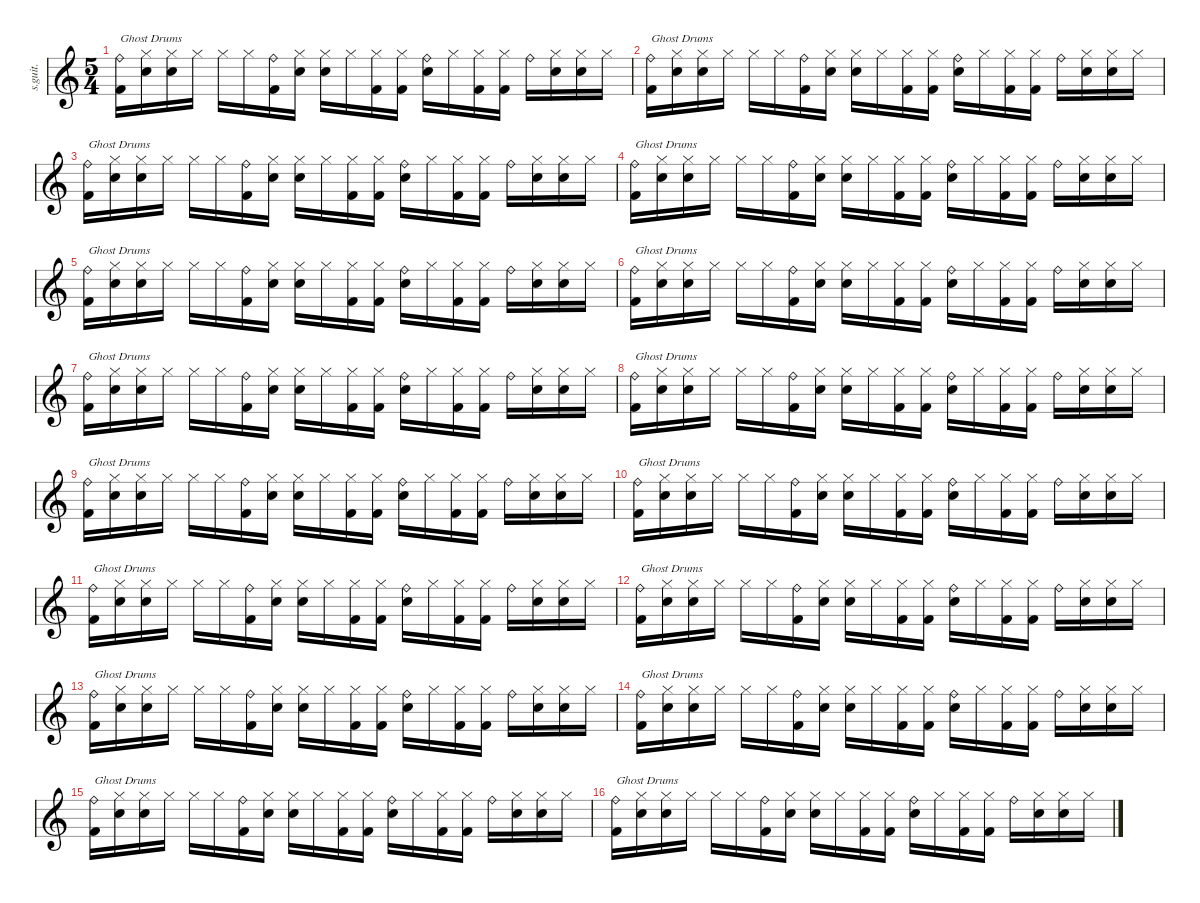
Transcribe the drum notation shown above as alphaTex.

\defaultSystemsLayout 4
\hideDynamics
\bracketExtendMode nobrackets
\track ("Pete Riley" "s.guit.") {instrument percussion}
\staff {score}
\articulation defaults
\ts (5 4)
\tempo (152 hide)
\clef g2
\ks c
("Ride (bell)" "Kick (hit) 2").16{txt "Ghost Drums" dy ff} ("Hi-Hat (closed)" "Snare (hit) 2").16{dy p} ("Hi-Hat (closed)" "Snare (hit) 2").16 "Hi-Hat (closed)".16 "Hi-Hat (closed)".16 "Hi-Hat (closed)".16 ("Ride (bell)" "Kick (hit) 2").16{dy fff} ("Hi-Hat (closed)" "Snare (hit) 2").16{dy p} ("Hi-Hat (closed)" "Snare (hit) 2").16 "Hi-Hat (closed)".16 ("Hi-Hat (closed)" "Kick (hit) 2").16 ("Hi-Hat (closed)" "Kick (hit) 2").16 ("Ride (bell)" "Snare (hit) 2").16{dy ff} "Hi-Hat (closed)".16{dy p} ("Hi-Hat (closed)" "Kick (hit) 2").16 ("Hi-Hat (closed)" "Kick (hit) 2").16 "Ride (bell)".16{dy f} ("Hi-Hat (closed)" "Snare (hit) 2").16{dy pp} ("Hi-Hat (closed)" "Snare (hit) 2").16 "Hi-Hat (closed)".16 |
("Ride (bell)" "Kick (hit) 2").16{txt "Ghost Drums" dy ff} ("Hi-Hat (closed)" "Snare (hit) 2").16{dy p} ("Hi-Hat (closed)" "Snare (hit) 2").16 "Hi-Hat (closed)".16 "Hi-Hat (closed)".16 "Hi-Hat (closed)".16 ("Ride (bell)" "Kick (hit) 2").16{dy fff} ("Hi-Hat (closed)" "Snare (hit) 2").16{dy p} ("Hi-Hat (closed)" "Snare (hit) 2").16 "Hi-Hat (closed)".16 ("Hi-Hat (closed)" "Kick (hit) 2").16 ("Hi-Hat (closed)" "Kick (hit) 2").16 ("Ride (bell)" "Snare (hit) 2").16{dy ff} "Hi-Hat (closed)".16{dy p} ("Hi-Hat (closed)" "Kick (hit) 2").16 ("Hi-Hat (closed)" "Kick (hit) 2").16 "Ride (bell)".16{dy fff} ("Hi-Hat (closed)" "Snare (hit) 2").16{dy pp} ("Hi-Hat (closed)" "Snare (hit) 2").16 "Hi-Hat (closed)".16 |
("Ride (bell)" "Kick (hit) 2").16{txt "Ghost Drums" dy ff} ("Hi-Hat (closed)" "Snare (hit) 2").16{dy p} ("Hi-Hat (closed)" "Snare (hit) 2").16 "Hi-Hat (closed)".16 "Hi-Hat (closed)".16 "Hi-Hat (closed)".16 ("Ride (bell)" "Kick (hit) 2").16{dy fff} ("Hi-Hat (closed)" "Snare (hit) 2").16{dy p} ("Hi-Hat (closed)" "Snare (hit) 2").16 "Hi-Hat (closed)".16 ("Hi-Hat (closed)" "Kick (hit) 2").16 ("Hi-Hat (closed)" "Kick (hit) 2").16 ("Ride (bell)" "Snare (hit) 2").16{dy ff} "Hi-Hat (closed)".16{dy p} ("Hi-Hat (closed)" "Kick (hit) 2").16 ("Hi-Hat (closed)" "Kick (hit) 2").16 "Ride (bell)".16{dy f} ("Hi-Hat (closed)" "Snare (hit) 2").16{dy pp} ("Hi-Hat (closed)" "Snare (hit) 2").16 "Hi-Hat (closed)".16 |
("Ride (bell)" "Kick (hit) 2").16{txt "Ghost Drums" dy ff} ("Hi-Hat (closed)" "Snare (hit) 2").16{dy p} ("Hi-Hat (closed)" "Snare (hit) 2").16 "Hi-Hat (closed)".16 "Hi-Hat (closed)".16 "Hi-Hat (closed)".16 ("Ride (bell)" "Kick (hit) 2").16{dy fff} ("Hi-Hat (closed)" "Snare (hit) 2").16{dy p} ("Hi-Hat (closed)" "Snare (hit) 2").16 "Hi-Hat (closed)".16 ("Hi-Hat (closed)" "Kick (hit) 2").16 ("Hi-Hat (closed)" "Kick (hit) 2").16 ("Ride (bell)" "Snare (hit) 2").16{dy ff} "Hi-Hat (closed)".16{dy p} ("Hi-Hat (closed)" "Kick (hit) 2").16 ("Hi-Hat (closed)" "Kick (hit) 2").16 "Ride (bell)".16{dy fff} ("Hi-Hat (closed)" "Snare (hit) 2").16{dy pp} ("Hi-Hat (closed)" "Snare (hit) 2").16 "Hi-Hat (closed)".16 |
("Ride (bell)" "Kick (hit) 2").16{txt "Ghost Drums" dy ff} ("Hi-Hat (closed)" "Snare (hit) 2").16{dy p} ("Hi-Hat (closed)" "Snare (hit) 2").16 "Hi-Hat (closed)".16 "Hi-Hat (closed)".16 "Hi-Hat (closed)".16 ("Ride (bell)" "Kick (hit) 2").16{dy fff} ("Hi-Hat (closed)" "Snare (hit) 2").16{dy p} ("Hi-Hat (closed)" "Snare (hit) 2").16 "Hi-Hat (closed)".16 ("Hi-Hat (closed)" "Kick (hit) 2").16 ("Hi-Hat (closed)" "Kick (hit) 2").16 ("Ride (bell)" "Snare (hit) 2").16{dy ff} "Hi-Hat (closed)".16{dy p} ("Hi-Hat (closed)" "Kick (hit) 2").16 ("Hi-Hat (closed)" "Kick (hit) 2").16 "Ride (bell)".16{dy f} ("Hi-Hat (closed)" "Snare (hit) 2").16{dy pp} ("Hi-Hat (closed)" "Snare (hit) 2").16 "Hi-Hat (closed)".16 |
("Ride (bell)" "Kick (hit) 2").16{txt "Ghost Drums" dy ff} ("Hi-Hat (closed)" "Snare (hit) 2").16{dy p} ("Hi-Hat (closed)" "Snare (hit) 2").16 "Hi-Hat (closed)".16 "Hi-Hat (closed)".16 "Hi-Hat (closed)".16 ("Ride (bell)" "Kick (hit) 2").16{dy fff} ("Hi-Hat (closed)" "Snare (hit) 2").16{dy p} ("Hi-Hat (closed)" "Snare (hit) 2").16 "Hi-Hat (closed)".16 ("Hi-Hat (closed)" "Kick (hit) 2").16 ("Hi-Hat (closed)" "Kick (hit) 2").16 ("Ride (bell)" "Snare (hit) 2").16{dy ff} "Hi-Hat (closed)".16{dy p} ("Hi-Hat (closed)" "Kick (hit) 2").16 ("Hi-Hat (closed)" "Kick (hit) 2").16 "Ride (bell)".16{dy fff} ("Hi-Hat (closed)" "Snare (hit) 2").16{dy pp} ("Hi-Hat (closed)" "Snare (hit) 2").16 "Hi-Hat (closed)".16 |
("Ride (bell)" "Kick (hit) 2").16{txt "Ghost Drums" dy ff} ("Hi-Hat (closed)" "Snare (hit) 2").16{dy p} ("Hi-Hat (closed)" "Snare (hit) 2").16 "Hi-Hat (closed)".16 "Hi-Hat (closed)".16 "Hi-Hat (closed)".16 ("Ride (bell)" "Kick (hit) 2").16{dy fff} ("Hi-Hat (closed)" "Snare (hit) 2").16{dy p} ("Hi-Hat (closed)" "Snare (hit) 2").16 "Hi-Hat (closed)".16 ("Hi-Hat (closed)" "Kick (hit) 2").16 ("Hi-Hat (closed)" "Kick (hit) 2").16 ("Ride (bell)" "Snare (hit) 2").16{dy ff} "Hi-Hat (closed)".16{dy p} ("Hi-Hat (closed)" "Kick (hit) 2").16 ("Hi-Hat (closed)" "Kick (hit) 2").16 "Ride (bell)".16{dy f} ("Hi-Hat (closed)" "Snare (hit) 2").16{dy pp} ("Hi-Hat (closed)" "Snare (hit) 2").16 "Hi-Hat (closed)".16 |
("Ride (bell)" "Kick (hit) 2").16{txt "Ghost Drums" dy ff} ("Hi-Hat (closed)" "Snare (hit) 2").16{dy p} ("Hi-Hat (closed)" "Snare (hit) 2").16 "Hi-Hat (closed)".16 "Hi-Hat (closed)".16 "Hi-Hat (closed)".16 ("Ride (bell)" "Kick (hit) 2").16{dy fff} ("Hi-Hat (closed)" "Snare (hit) 2").16{dy p} ("Hi-Hat (closed)" "Snare (hit) 2").16 "Hi-Hat (closed)".16 ("Hi-Hat (closed)" "Kick (hit) 2").16 ("Hi-Hat (closed)" "Kick (hit) 2").16 ("Ride (bell)" "Snare (hit) 2").16{dy ff} "Hi-Hat (closed)".16{dy p} ("Hi-Hat (closed)" "Kick (hit) 2").16 ("Hi-Hat (closed)" "Kick (hit) 2").16 "Ride (bell)".16{dy fff} ("Hi-Hat (closed)" "Snare (hit) 2").16{dy pp} ("Hi-Hat (closed)" "Snare (hit) 2").16 "Hi-Hat (closed)".16 |
("Ride (bell)" "Kick (hit) 2").16{txt "Ghost Drums" dy ff} ("Hi-Hat (closed)" "Snare (hit) 2").16{dy p} ("Hi-Hat (closed)" "Snare (hit) 2").16 "Hi-Hat (closed)".16 "Hi-Hat (closed)".16 "Hi-Hat (closed)".16 ("Ride (bell)" "Kick (hit) 2").16{dy fff} ("Hi-Hat (closed)" "Snare (hit) 2").16{dy p} ("Hi-Hat (closed)" "Snare (hit) 2").16 "Hi-Hat (closed)".16 ("Hi-Hat (closed)" "Kick (hit) 2").16 ("Hi-Hat (closed)" "Kick (hit) 2").16 ("Ride (bell)" "Snare (hit) 2").16{dy ff} "Hi-Hat (closed)".16{dy p} ("Hi-Hat (closed)" "Kick (hit) 2").16 ("Hi-Hat (closed)" "Kick (hit) 2").16 "Ride (bell)".16{dy f} ("Hi-Hat (closed)" "Snare (hit) 2").16{dy pp} ("Hi-Hat (closed)" "Snare (hit) 2").16 "Hi-Hat (closed)".16 |
("Ride (bell)" "Kick (hit) 2").16{txt "Ghost Drums" dy ff} ("Hi-Hat (closed)" "Snare (hit) 2").16{dy p} ("Hi-Hat (closed)" "Snare (hit) 2").16 "Hi-Hat (closed)".16 "Hi-Hat (closed)".16 "Hi-Hat (closed)".16 ("Ride (bell)" "Kick (hit) 2").16{dy fff} ("Hi-Hat (closed)" "Snare (hit) 2").16{dy p} ("Hi-Hat (closed)" "Snare (hit) 2").16 "Hi-Hat (closed)".16 ("Hi-Hat (closed)" "Kick (hit) 2").16 ("Hi-Hat (closed)" "Kick (hit) 2").16 ("Ride (bell)" "Snare (hit) 2").16{dy ff} "Hi-Hat (closed)".16{dy p} ("Hi-Hat (closed)" "Kick (hit) 2").16 ("Hi-Hat (closed)" "Kick (hit) 2").16 "Ride (bell)".16{dy fff} ("Hi-Hat (closed)" "Snare (hit) 2").16{dy pp} ("Hi-Hat (closed)" "Snare (hit) 2").16 "Hi-Hat (closed)".16 |
("Ride (bell)" "Kick (hit) 2").16{txt "Ghost Drums" dy ff} ("Hi-Hat (closed)" "Snare (hit) 2").16{dy p} ("Hi-Hat (closed)" "Snare (hit) 2").16 "Hi-Hat (closed)".16 "Hi-Hat (closed)".16 "Hi-Hat (closed)".16 ("Ride (bell)" "Kick (hit) 2").16{dy fff} ("Hi-Hat (closed)" "Snare (hit) 2").16{dy p} ("Hi-Hat (closed)" "Snare (hit) 2").16 "Hi-Hat (closed)".16 ("Hi-Hat (closed)" "Kick (hit) 2").16 ("Hi-Hat (closed)" "Kick (hit) 2").16 ("Ride (bell)" "Snare (hit) 2").16{dy ff} "Hi-Hat (closed)".16{dy p} ("Hi-Hat (closed)" "Kick (hit) 2").16 ("Hi-Hat (closed)" "Kick (hit) 2").16 "Ride (bell)".16{dy f} ("Hi-Hat (closed)" "Snare (hit) 2").16{dy pp} ("Hi-Hat (closed)" "Snare (hit) 2").16 "Hi-Hat (closed)".16 |
("Ride (bell)" "Kick (hit) 2").16{txt "Ghost Drums" dy ff} ("Hi-Hat (closed)" "Snare (hit) 2").16{dy p} ("Hi-Hat (closed)" "Snare (hit) 2").16 "Hi-Hat (closed)".16 "Hi-Hat (closed)".16 "Hi-Hat (closed)".16 ("Ride (bell)" "Kick (hit) 2").16{dy fff} ("Hi-Hat (closed)" "Snare (hit) 2").16{dy p} ("Hi-Hat (closed)" "Snare (hit) 2").16 "Hi-Hat (closed)".16 ("Hi-Hat (closed)" "Kick (hit) 2").16 ("Hi-Hat (closed)" "Kick (hit) 2").16 ("Ride (bell)" "Snare (hit) 2").16{dy ff} "Hi-Hat (closed)".16{dy p} ("Hi-Hat (closed)" "Kick (hit) 2").16 ("Hi-Hat (closed)" "Kick (hit) 2").16 "Ride (bell)".16{dy fff} ("Hi-Hat (closed)" "Snare (hit) 2").16{dy pp} ("Hi-Hat (closed)" "Snare (hit) 2").16 "Hi-Hat (closed)".16 |
("Ride (bell)" "Kick (hit) 2").16{txt "Ghost Drums" dy ff} ("Hi-Hat (closed)" "Snare (hit) 2").16{dy p} ("Hi-Hat (closed)" "Snare (hit) 2").16 "Hi-Hat (closed)".16 "Hi-Hat (closed)".16 "Hi-Hat (closed)".16 ("Ride (bell)" "Kick (hit) 2").16{dy fff} ("Hi-Hat (closed)" "Snare (hit) 2").16{dy p} ("Hi-Hat (closed)" "Snare (hit) 2").16 "Hi-Hat (closed)".16 ("Hi-Hat (closed)" "Kick (hit) 2").16 ("Hi-Hat (closed)" "Kick (hit) 2").16 ("Ride (bell)" "Snare (hit) 2").16{dy ff} "Hi-Hat (closed)".16{dy p} ("Hi-Hat (closed)" "Kick (hit) 2").16 ("Hi-Hat (closed)" "Kick (hit) 2").16 "Ride (bell)".16{dy f} ("Hi-Hat (closed)" "Snare (hit) 2").16{dy pp} ("Hi-Hat (closed)" "Snare (hit) 2").16 "Hi-Hat (closed)".16 |
("Ride (bell)" "Kick (hit) 2").16{txt "Ghost Drums" dy ff} ("Hi-Hat (closed)" "Snare (hit) 2").16{dy p} ("Hi-Hat (closed)" "Snare (hit) 2").16 "Hi-Hat (closed)".16 "Hi-Hat (closed)".16 "Hi-Hat (closed)".16 ("Ride (bell)" "Kick (hit) 2").16{dy fff} ("Hi-Hat (closed)" "Snare (hit) 2").16{dy p} ("Hi-Hat (closed)" "Snare (hit) 2").16 "Hi-Hat (closed)".16 ("Hi-Hat (closed)" "Kick (hit) 2").16 ("Hi-Hat (closed)" "Kick (hit) 2").16 ("Ride (bell)" "Snare (hit) 2").16{dy ff} "Hi-Hat (closed)".16{dy p} ("Hi-Hat (closed)" "Kick (hit) 2").16 ("Hi-Hat (closed)" "Kick (hit) 2").16 "Ride (bell)".16{dy fff} ("Hi-Hat (closed)" "Snare (hit) 2").16{dy pp} ("Hi-Hat (closed)" "Snare (hit) 2").16 "Hi-Hat (closed)".16 |
("Ride (bell)" "Kick (hit) 2").16{txt "Ghost Drums" dy ff} ("Hi-Hat (closed)" "Snare (hit) 2").16{dy p} ("Hi-Hat (closed)" "Snare (hit) 2").16 "Hi-Hat (closed)".16 "Hi-Hat (closed)".16 "Hi-Hat (closed)".16 ("Ride (bell)" "Kick (hit) 2").16{dy fff} ("Hi-Hat (closed)" "Snare (hit) 2").16{dy p} ("Hi-Hat (closed)" "Snare (hit) 2").16 "Hi-Hat (closed)".16 ("Hi-Hat (closed)" "Kick (hit) 2").16 ("Hi-Hat (closed)" "Kick (hit) 2").16 ("Ride (bell)" "Snare (hit) 2").16{dy ff} "Hi-Hat (closed)".16{dy p} ("Hi-Hat (closed)" "Kick (hit) 2").16 ("Hi-Hat (closed)" "Kick (hit) 2").16 "Ride (bell)".16{dy f} ("Hi-Hat (closed)" "Snare (hit) 2").16{dy pp} ("Hi-Hat (closed)" "Snare (hit) 2").16 "Hi-Hat (closed)".16 |
("Ride (bell)" "Kick (hit) 2").16{txt "Ghost Drums" dy ff} ("Hi-Hat (closed)" "Snare (hit) 2").16{dy p} ("Hi-Hat (closed)" "Snare (hit) 2").16 "Hi-Hat (closed)".16 "Hi-Hat (closed)".16 "Hi-Hat (closed)".16 ("Ride (bell)" "Kick (hit) 2").16{dy fff} ("Hi-Hat (closed)" "Snare (hit) 2").16{dy p} ("Hi-Hat (closed)" "Snare (hit) 2").16 "Hi-Hat (closed)".16 ("Hi-Hat (closed)" "Kick (hit) 2").16 ("Hi-Hat (closed)" "Kick (hit) 2").16 ("Ride (bell)" "Snare (hit) 2").16{dy ff} "Hi-Hat (closed)".16{dy p} ("Hi-Hat (closed)" "Kick (hit) 2").16 ("Hi-Hat (closed)" "Kick (hit) 2").16 "Ride (bell)".16{dy fff} ("Hi-Hat (closed)" "Snare (hit) 2").16{dy pp} ("Hi-Hat (closed)" "Snare (hit) 2").16 "Hi-Hat (closed)".16
